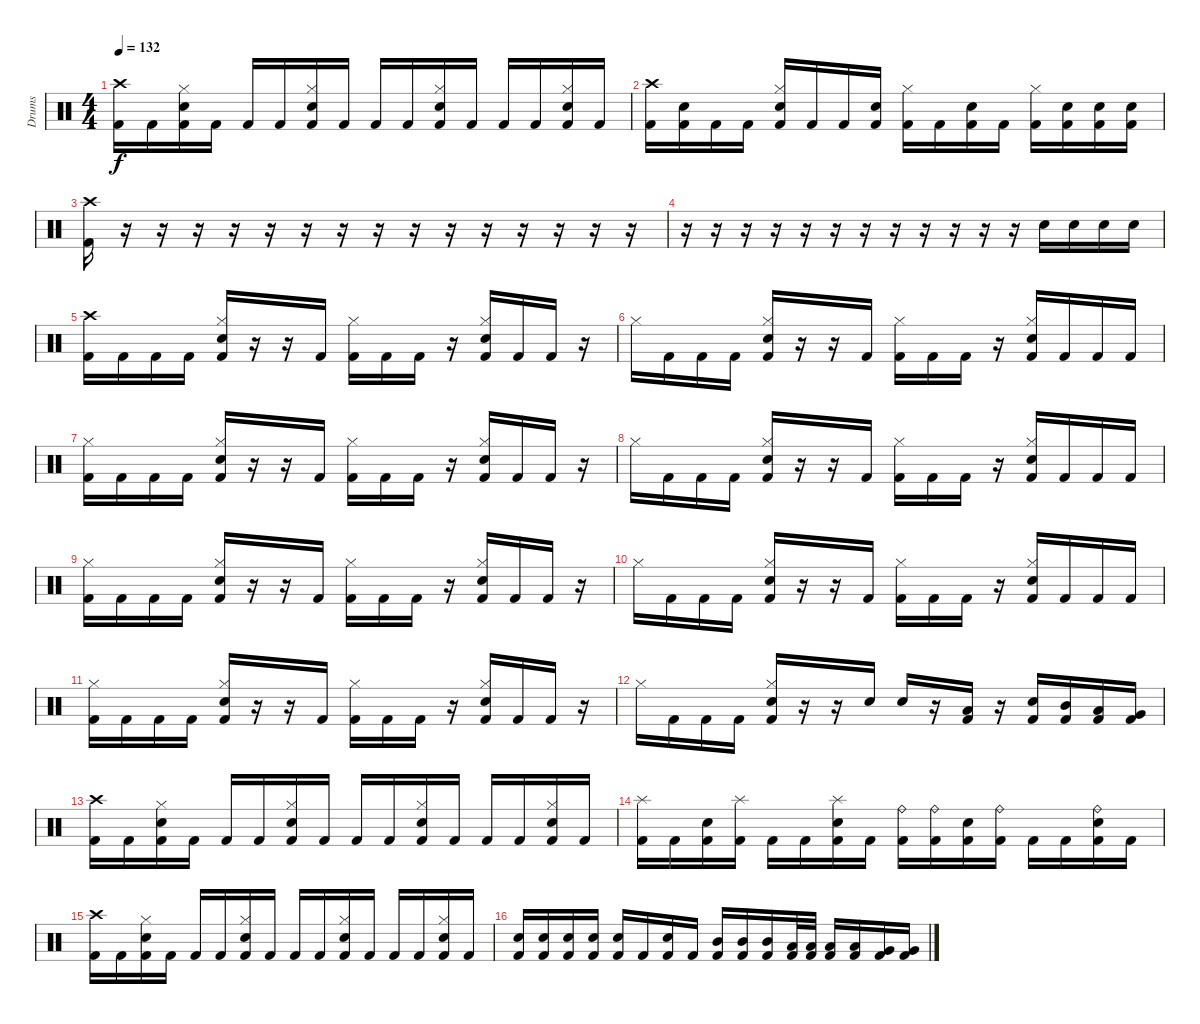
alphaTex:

\track ("Drums" "Drums") {instrument percussion}
\staff {score}
\articulation defaults
\ts (4 4)
\tempo 132
\clef neutral
\ks c
("Crash high (hit)" "Kick (hit) 2").16{dy f} "Kick (hit) 2".16 ("Hi-Hat (closed)" "Electric Snare (hit)" "Kick (hit) 2").16 "Kick (hit) 2".16 "Kick (hit) 2".16 "Kick (hit) 2".16 ("Hi-Hat (closed)" "Electric Snare (hit)" "Kick (hit) 2").16 "Kick (hit) 2".16 "Kick (hit) 2".16 "Kick (hit) 2".16 ("Hi-Hat (closed)" "Electric Snare (hit)" "Kick (hit) 2").16 "Kick (hit) 2".16 "Kick (hit) 2".16 "Kick (hit) 2".16 ("Hi-Hat (closed)" "Electric Snare (hit)" "Kick (hit) 2").16 "Kick (hit) 2".16 |
("Crash high (hit)" "Kick (hit) 2").16 ("Electric Snare (hit)" "Kick (hit) 2").16 "Kick (hit) 2".16 "Kick (hit) 2".16 ("Hi-Hat (closed)" "Electric Snare (hit)" "Kick (hit) 2").16 "Kick (hit) 2".16 "Kick (hit) 2".16 ("Electric Snare (hit)" "Kick (hit) 2").16 ("Hi-Hat (closed)" "Kick (hit) 2").16 "Kick (hit) 2".16 ("Electric Snare (hit)" "Kick (hit) 2").16 "Kick (hit) 2".16 ("Hi-Hat (closed)" "Kick (hit) 2").16 ("Electric Snare (hit)" "Kick (hit) 2").16 ("Electric Snare (hit)" "Kick (hit) 2").16 ("Electric Snare (hit)" "Kick (hit) 2").16 |
("Crash high (hit)" "Kick (hit) 2").16 r.16 r.16 r.16 r.16 r.16 r.16 r.16 r.16 r.16 r.16 r.16 r.16 r.16 r.16 r.16 |
r.16 r.16 r.16 r.16 r.16 r.16 r.16 r.16 r.16 r.16 r.16 r.16 "Electric Snare (hit)".16 "Electric Snare (hit)".16 "Electric Snare (hit)".16 "Electric Snare (hit)".16 |
("Crash high (hit)" "Kick (hit) 2").16 "Kick (hit) 2".16 "Kick (hit) 2".16 "Kick (hit) 2".16 ("Hi-Hat (closed)" "Electric Snare (hit)" "Kick (hit) 2").16 r.16 r.16 "Kick (hit) 2".16 ("Hi-Hat (closed)" "Kick (hit) 2").16 "Kick (hit) 2".16 "Kick (hit) 2".16 r.16 ("Hi-Hat (closed)" "Electric Snare (hit)" "Kick (hit) 2").16 "Kick (hit) 2".16 "Kick (hit) 2".16 r.16 |
"Hi-Hat (closed)".16 "Kick (hit) 2".16 "Kick (hit) 2".16 "Kick (hit) 2".16 ("Hi-Hat (closed)" "Electric Snare (hit)" "Kick (hit) 2").16 r.16 r.16 "Kick (hit) 2".16 ("Hi-Hat (closed)" "Kick (hit) 2").16 "Kick (hit) 2".16 "Kick (hit) 2".16 r.16 ("Hi-Hat (closed)" "Electric Snare (hit)" "Kick (hit) 2").16 "Kick (hit) 2".16 "Kick (hit) 2".16 "Kick (hit) 2".16 |
("Hi-Hat (closed)" "Kick (hit) 2").16 "Kick (hit) 2".16 "Kick (hit) 2".16 "Kick (hit) 2".16 ("Hi-Hat (closed)" "Electric Snare (hit)" "Kick (hit) 2").16 r.16 r.16 "Kick (hit) 2".16 ("Hi-Hat (closed)" "Kick (hit) 2").16 "Kick (hit) 2".16 "Kick (hit) 2".16 r.16 ("Hi-Hat (closed)" "Electric Snare (hit)" "Kick (hit) 2").16 "Kick (hit) 2".16 "Kick (hit) 2".16 r.16 |
"Hi-Hat (closed)".16 "Kick (hit) 2".16 "Kick (hit) 2".16 "Kick (hit) 2".16 ("Hi-Hat (closed)" "Electric Snare (hit)" "Kick (hit) 2").16 r.16 r.16 "Kick (hit) 2".16 ("Hi-Hat (closed)" "Kick (hit) 2").16 "Kick (hit) 2".16 "Kick (hit) 2".16 r.16 ("Hi-Hat (closed)" "Electric Snare (hit)" "Kick (hit) 2").16 "Kick (hit) 2".16 "Kick (hit) 2".16 "Kick (hit) 2".16 |
("Hi-Hat (closed)" "Kick (hit) 2").16 "Kick (hit) 2".16 "Kick (hit) 2".16 "Kick (hit) 2".16 ("Hi-Hat (closed)" "Electric Snare (hit)" "Kick (hit) 2").16 r.16 r.16 "Kick (hit) 2".16 ("Hi-Hat (closed)" "Kick (hit) 2").16 "Kick (hit) 2".16 "Kick (hit) 2".16 r.16 ("Hi-Hat (closed)" "Electric Snare (hit)" "Kick (hit) 2").16 "Kick (hit) 2".16 "Kick (hit) 2".16 r.16 |
"Hi-Hat (closed)".16 "Kick (hit) 2".16 "Kick (hit) 2".16 "Kick (hit) 2".16 ("Hi-Hat (closed)" "Electric Snare (hit)" "Kick (hit) 2").16 r.16 r.16 "Kick (hit) 2".16 ("Hi-Hat (closed)" "Kick (hit) 2").16 "Kick (hit) 2".16 "Kick (hit) 2".16 r.16 ("Hi-Hat (closed)" "Electric Snare (hit)" "Kick (hit) 2").16 "Kick (hit) 2".16 "Kick (hit) 2".16 "Kick (hit) 2".16 |
("Hi-Hat (closed)" "Kick (hit) 2").16 "Kick (hit) 2".16 "Kick (hit) 2".16 "Kick (hit) 2".16 ("Hi-Hat (closed)" "Electric Snare (hit)" "Kick (hit) 2").16 r.16 r.16 "Kick (hit) 2".16 ("Hi-Hat (closed)" "Kick (hit) 2").16 "Kick (hit) 2".16 "Kick (hit) 2".16 r.16 ("Hi-Hat (closed)" "Electric Snare (hit)" "Kick (hit) 2").16 "Kick (hit) 2".16 "Kick (hit) 2".16 r.16 |
"Hi-Hat (closed)".16 "Kick (hit) 2".16 "Kick (hit) 2".16 "Kick (hit) 2".16 ("Hi-Hat (closed)" "Electric Snare (hit)" "Kick (hit) 2").16 r.16 r.16 "Electric Snare (hit)".16 "Electric Snare (hit)".16 r.16 ("Low Tom (hit)" "Kick (hit) 2").16 r.16 ("Electric Snare (hit)" "Kick (hit) 2").16 ("Mid Tom (hit)" "Kick (hit) 2").16 ("Low Tom (hit)" "Kick (hit) 2").16 ("Very Low Tom (hit)" "Kick (hit) 2").16 |
("Crash high (hit)" "Kick (hit) 2").16 "Kick (hit) 2".16 ("Hi-Hat (closed)" "Electric Snare (hit)" "Kick (hit) 2").16 "Kick (hit) 2".16 "Kick (hit) 2".16 "Kick (hit) 2".16 ("Hi-Hat (closed)" "Electric Snare (hit)" "Kick (hit) 2").16 "Kick (hit) 2".16 "Kick (hit) 2".16 "Kick (hit) 2".16 ("Hi-Hat (closed)" "Electric Snare (hit)" "Kick (hit) 2").16 "Kick (hit) 2".16 "Kick (hit) 2".16 "Kick (hit) 2".16 ("Hi-Hat (closed)" "Electric Snare (hit)" "Kick (hit) 2").16 "Kick (hit) 2".16 |
("Splash (hit)" "Kick (hit) 2").16 "Kick (hit) 2".16 ("Electric Snare (hit)" "Kick (hit) 2").16 ("Splash (hit)" "Kick (hit) 2").16 "Kick (hit) 2".16 "Kick (hit) 2".16 ("Splash (hit)" "Electric Snare (hit)" "Kick (hit) 2").16 "Kick (hit) 2".16 ("Ride (bell)" "Kick (hit) 2").16 ("Ride (bell)" "Kick (hit) 2").16 ("Electric Snare (hit)" "Kick (hit) 2").16 ("Ride (bell)" "Kick (hit) 2").16 "Kick (hit) 2".16 "Kick (hit) 2".16 ("Ride (bell)" "Electric Snare (hit)" "Kick (hit) 2").16 "Kick (hit) 2".16 |
("Crash high (hit)" "Kick (hit) 2").16 "Kick (hit) 2".16 ("Hi-Hat (closed)" "Electric Snare (hit)" "Kick (hit) 2").16 "Kick (hit) 2".16 "Kick (hit) 2".16 "Kick (hit) 2".16 ("Hi-Hat (closed)" "Electric Snare (hit)" "Kick (hit) 2").16 "Kick (hit) 2".16 "Kick (hit) 2".16 "Kick (hit) 2".16 ("Hi-Hat (closed)" "Electric Snare (hit)" "Kick (hit) 2").16 "Kick (hit) 2".16 "Kick (hit) 2".16 "Kick (hit) 2".16 ("Hi-Hat (closed)" "Electric Snare (hit)" "Kick (hit) 2").16 "Kick (hit) 2".16 |
("Electric Snare (hit)" "Kick (hit) 2").16 ("Electric Snare (hit)" "Kick (hit) 2").16 ("Electric Snare (hit)" "Kick (hit) 2").16 ("Electric Snare (hit)" "Kick (hit) 2").16 ("Electric Snare (hit)" "Kick (hit) 2").16 "Kick (hit) 2".16 ("Electric Snare (hit)" "Kick (hit) 2").16 "Kick (hit) 2".16 ("Mid Tom (hit)" "Kick (hit) 2").16 ("Mid Tom (hit)" "Kick (hit) 2").16 ("Mid Tom (hit)" "Kick (hit) 2").16 ("Low Tom (hit)" "Kick (hit) 2").32 ("Low Tom (hit)" "Kick (hit) 2").32 ("Low Tom (hit)" "Kick (hit) 2").16 ("Low Tom (hit)" "Kick (hit) 2").16 ("Very Low Tom (hit)" "Kick (hit) 2").16 ("Very Low Tom (hit)" "Kick (hit) 2").16
